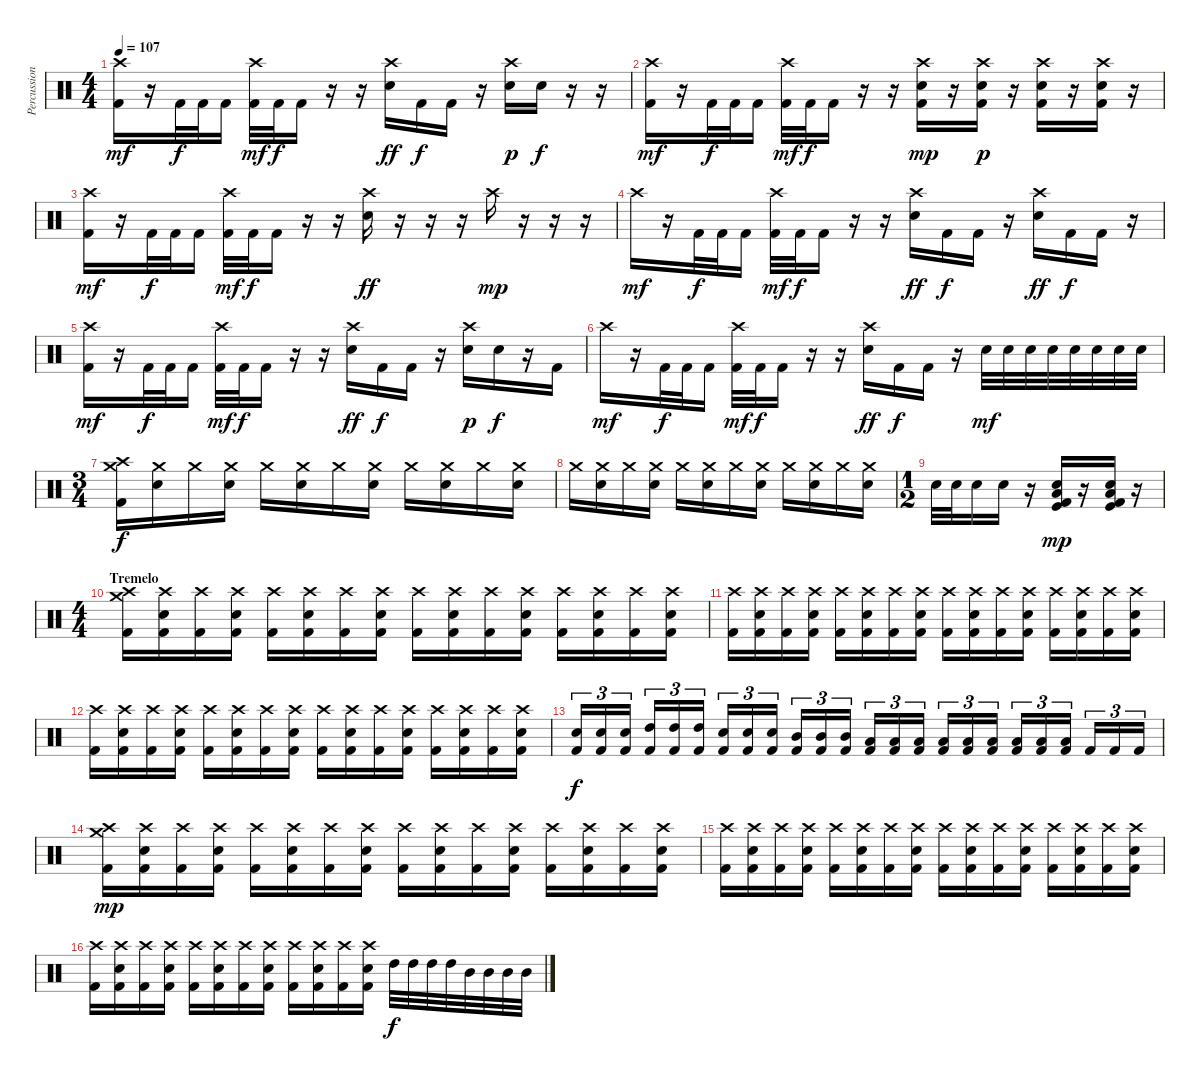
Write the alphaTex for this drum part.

\track ("Percussion" "Percussion") {instrument percussion}
\staff {score}
\articulation defaults
\ts (4 4)
\tempo 107
\clef neutral
\ks c
("Crash high (hit)" "Kick (hit) 2").16{dy mf} r.16 "Kick (hit) 2".32{dy f} "Kick (hit) 2".32 "Kick (hit) 2".16 ("Crash high (hit)" "Kick (hit) 2").32{dy mf} "Kick (hit) 2".32{dy f} "Kick (hit) 2".16 r.16 r.16 ("Crash high (hit)" "Electric Snare (hit)").16{dy ff} "Kick (hit) 2".16{dy f} "Kick (hit) 2".16 r.16 ("Crash high (hit)" "Electric Snare (hit)").16{dy p} "Electric Snare (hit)".16{dy f} r.16 r.16 |
("Crash high (hit)" "Kick (hit) 2").16{dy mf} r.16 "Kick (hit) 2".32{dy f} "Kick (hit) 2".32 "Kick (hit) 2".16 ("Crash high (hit)" "Kick (hit) 2").32{dy mf} "Kick (hit) 2".32{dy f} "Kick (hit) 2".16 r.16 r.16 ("Crash high (hit)" "Electric Snare (hit)" "Kick (hit) 2").16{dy mp} r.16 ("Crash high (hit)" "Electric Snare (hit)" "Kick (hit) 2").16{dy p} r.16 ("Crash high (hit)" "Electric Snare (hit)" "Kick (hit) 2").16 r.16 ("Crash high (hit)" "Electric Snare (hit)" "Kick (hit) 2").16 r.16 |
("Crash high (hit)" "Kick (hit) 2").16{dy mf} r.16 "Kick (hit) 2".32{dy f} "Kick (hit) 2".32 "Kick (hit) 2".16 ("Crash high (hit)" "Kick (hit) 2").32{dy mf} "Kick (hit) 2".32{dy f} "Kick (hit) 2".16 r.16 r.16 ("Crash high (hit)" "Electric Snare (hit)").16{dy ff} r.16 r.16 r.16 "Crash high (hit)".16{dy mp} r.16 r.16 r.16 |
"Crash high (hit)".16{dy mf} r.16 "Kick (hit) 2".32{dy f} "Kick (hit) 2".32 "Kick (hit) 2".16 ("Crash high (hit)" "Kick (hit) 2").32{dy mf} "Kick (hit) 2".32{dy f} "Kick (hit) 2".16 r.16 r.16 ("Crash high (hit)" "Electric Snare (hit)").16{dy ff} "Kick (hit) 2".16{dy f} "Kick (hit) 2".16 r.16 ("Crash high (hit)" "Electric Snare (hit)").16{dy ff} "Kick (hit) 2".16{dy f} "Kick (hit) 2".16 r.16 |
("Crash high (hit)" "Kick (hit) 2").16{dy mf} r.16 "Kick (hit) 2".32{dy f} "Kick (hit) 2".32 "Kick (hit) 2".16 ("Crash high (hit)" "Kick (hit) 2").32{dy mf} "Kick (hit) 2".32{dy f} "Kick (hit) 2".16 r.16 r.16 ("Crash high (hit)" "Electric Snare (hit)").16{dy ff} "Kick (hit) 2".16{dy f} "Kick (hit) 2".16 r.16 ("Crash high (hit)" "Electric Snare (hit)").16{dy p} "Electric Snare (hit)".16{dy f} r.16 "Kick (hit) 2".16 |
"Crash high (hit)".16{dy mf} r.16 "Kick (hit) 2".32{dy f} "Kick (hit) 2".32 "Kick (hit) 2".16 ("Crash high (hit)" "Kick (hit) 2").32{dy mf} "Kick (hit) 2".32{dy f} "Kick (hit) 2".16 r.16 r.16 ("Crash high (hit)" "Electric Snare (hit)").16{dy ff} "Kick (hit) 2".16{dy f} "Kick (hit) 2".16 r.16 "Electric Snare (hit)".32{dy mf} "Electric Snare (hit)".32 "Electric Snare (hit)".32 "Electric Snare (hit)".32 "Electric Snare (hit)".32 "Electric Snare (hit)".32 "Electric Snare (hit)".32 "Electric Snare (hit)".32 |
\ts (3 4)
("Crash medium (hit)" "Crash high (hit)" "Kick (hit) 2").16{dy f} ("Crash medium (hit)" "Electric Snare (hit)").16 "Crash medium (hit)".16 ("Crash medium (hit)" "Electric Snare (hit)").16 "Crash medium (hit)".16 ("Crash medium (hit)" "Electric Snare (hit)").16 "Crash medium (hit)".16 ("Crash medium (hit)" "Electric Snare (hit)").16 "Crash medium (hit)".16 ("Crash medium (hit)" "Electric Snare (hit)").16 "Crash medium (hit)".16 ("Crash medium (hit)" "Electric Snare (hit)").16 |
"Crash medium (hit)".16 ("Crash medium (hit)" "Electric Snare (hit)").16 "Crash medium (hit)".16 ("Crash medium (hit)" "Electric Snare (hit)").16 "Crash medium (hit)".16 ("Crash medium (hit)" "Electric Snare (hit)").16 "Crash medium (hit)".16 ("Crash medium (hit)" "Electric Snare (hit)").16 "Crash medium (hit)".16 ("Crash medium (hit)" "Electric Snare (hit)").16 "Crash medium (hit)".16 ("Crash medium (hit)" "Electric Snare (hit)").16 |
\ts (1 2)
"Electric Snare (hit)".32 "Electric Snare (hit)".32 "Electric Snare (hit)".16 "Electric Snare (hit)".16 r.16 ("Electric Snare (hit)" "Low Floor Tom (hit)" "Kick (hit)" "Kick (hit) 2").16{dy mp} r.16 ("Electric Snare (hit)" "Low Floor Tom (hit)" "Kick (hit)" "Kick (hit) 2").16 r.16 |
\ts (4 4)
\section ("" "Tremelo")
("Crash high (hit)" "Crash medium (hit)" "Kick (hit) 2").16 ("Crash high (hit)" "Electric Snare (hit)" "Kick (hit) 2").16 ("Crash high (hit)" "Kick (hit) 2").16 ("Crash high (hit)" "Electric Snare (hit)" "Kick (hit) 2").16 ("Crash high (hit)" "Kick (hit) 2").16 ("Crash high (hit)" "Electric Snare (hit)" "Kick (hit) 2").16 ("Crash high (hit)" "Kick (hit) 2").16 ("Crash high (hit)" "Electric Snare (hit)" "Kick (hit) 2").16 ("Crash high (hit)" "Kick (hit) 2").16 ("Crash high (hit)" "Electric Snare (hit)" "Kick (hit) 2").16 ("Crash high (hit)" "Kick (hit) 2").16 ("Crash high (hit)" "Electric Snare (hit)" "Kick (hit) 2").16 ("Crash high (hit)" "Kick (hit) 2").16 ("Crash high (hit)" "Electric Snare (hit)" "Kick (hit) 2").16 ("Crash high (hit)" "Kick (hit) 2").16 ("Crash high (hit)" "Electric Snare (hit)" "Kick (hit) 2").16 |
("Crash high (hit)" "Kick (hit) 2").16 ("Crash high (hit)" "Electric Snare (hit)" "Kick (hit) 2").16 ("Crash high (hit)" "Kick (hit) 2").16 ("Crash high (hit)" "Electric Snare (hit)" "Kick (hit) 2").16 ("Crash high (hit)" "Kick (hit) 2").16 ("Crash high (hit)" "Electric Snare (hit)" "Kick (hit) 2").16 ("Crash high (hit)" "Kick (hit) 2").16 ("Crash high (hit)" "Electric Snare (hit)" "Kick (hit) 2").16 ("Crash high (hit)" "Kick (hit) 2").16 ("Crash high (hit)" "Electric Snare (hit)" "Kick (hit) 2").16 ("Crash high (hit)" "Kick (hit) 2").16 ("Crash high (hit)" "Electric Snare (hit)" "Kick (hit) 2").16 ("Crash high (hit)" "Kick (hit) 2").16 ("Crash high (hit)" "Electric Snare (hit)" "Kick (hit) 2").16 ("Crash high (hit)" "Kick (hit) 2").16 ("Crash high (hit)" "Electric Snare (hit)" "Kick (hit) 2").16 |
("Crash high (hit)" "Kick (hit) 2").16 ("Crash high (hit)" "Electric Snare (hit)" "Kick (hit) 2").16 ("Crash high (hit)" "Kick (hit) 2").16 ("Crash high (hit)" "Electric Snare (hit)" "Kick (hit) 2").16 ("Crash high (hit)" "Kick (hit) 2").16 ("Crash high (hit)" "Electric Snare (hit)" "Kick (hit) 2").16 ("Crash high (hit)" "Kick (hit) 2").16 ("Crash high (hit)" "Electric Snare (hit)" "Kick (hit) 2").16 ("Crash high (hit)" "Kick (hit) 2").16 ("Crash high (hit)" "Electric Snare (hit)" "Kick (hit) 2").16 ("Crash high (hit)" "Kick (hit) 2").16 ("Crash high (hit)" "Electric Snare (hit)" "Kick (hit) 2").16 ("Crash high (hit)" "Kick (hit) 2").16 ("Crash high (hit)" "Electric Snare (hit)" "Kick (hit) 2").16 ("Crash high (hit)" "Kick (hit) 2").16 ("Crash high (hit)" "Electric Snare (hit)" "Kick (hit) 2").16 |
("Electric Snare (hit)" "Kick (hit) 2").16{tu (3 2) dy f} ("Electric Snare (hit)" "Kick (hit) 2").16{tu (3 2)} ("Electric Snare (hit)" "Kick (hit) 2").16{tu (3 2)} ("High Tom (hit)" "Kick (hit) 2").16{tu (3 2)} ("High Tom (hit)" "Kick (hit) 2").16{tu (3 2)} ("High Tom (hit)" "Kick (hit) 2").16{tu (3 2)} ("Electric Snare (hit)" "Kick (hit) 2").16{tu (3 2)} ("Electric Snare (hit)" "Kick (hit) 2").16{tu (3 2)} ("Electric Snare (hit)" "Kick (hit) 2").16{tu (3 2)} ("Mid Tom (hit)" "Kick (hit) 2").16{tu (3 2)} ("Mid Tom (hit)" "Kick (hit) 2").16{tu (3 2)} ("Mid Tom (hit)" "Kick (hit) 2").16{tu (3 2)} ("Low Tom (hit)" "Kick (hit) 2").16{tu (3 2)} ("Low Tom (hit)" "Kick (hit) 2").16{tu (3 2)} ("Low Tom (hit)" "Kick (hit) 2").16{tu (3 2)} ("Low Tom (hit)" "Kick (hit) 2").16{tu (3 2)} ("Low Tom (hit)" "Kick (hit) 2").16{tu (3 2)} ("Low Tom (hit)" "Kick (hit) 2").16{tu (3 2)} ("Low Floor Tom (hit)" "Kick (hit) 2").16{tu (3 2)} ("Low Floor Tom (hit)" "Kick (hit) 2").16{tu (3 2)} ("Low Floor Tom (hit)" "Kick (hit) 2").16{tu (3 2)} "Kick (hit) 2".16{tu (3 2)} "Kick (hit) 2".16{tu (3 2)} "Kick (hit) 2".16{tu (3 2)} |
("Crash high (hit)" "Crash medium (hit)" "Kick (hit) 2").16{dy mp} ("Crash high (hit)" "Electric Snare (hit)" "Kick (hit) 2").16 ("Crash high (hit)" "Kick (hit) 2").16 ("Crash high (hit)" "Electric Snare (hit)" "Kick (hit) 2").16 ("Crash high (hit)" "Kick (hit) 2").16 ("Crash high (hit)" "Electric Snare (hit)" "Kick (hit) 2").16 ("Crash high (hit)" "Kick (hit) 2").16 ("Crash high (hit)" "Electric Snare (hit)" "Kick (hit) 2").16 ("Crash high (hit)" "Kick (hit) 2").16 ("Crash high (hit)" "Electric Snare (hit)" "Kick (hit) 2").16 ("Crash high (hit)" "Kick (hit) 2").16 ("Crash high (hit)" "Electric Snare (hit)" "Kick (hit) 2").16 ("Crash high (hit)" "Kick (hit) 2").16 ("Crash high (hit)" "Electric Snare (hit)" "Kick (hit) 2").16 ("Crash high (hit)" "Kick (hit) 2").16 ("Crash high (hit)" "Electric Snare (hit)" "Kick (hit) 2").16 |
("Crash high (hit)" "Kick (hit) 2").16 ("Crash high (hit)" "Electric Snare (hit)" "Kick (hit) 2").16 ("Crash high (hit)" "Kick (hit) 2").16 ("Crash high (hit)" "Electric Snare (hit)" "Kick (hit) 2").16 ("Crash high (hit)" "Kick (hit) 2").16 ("Crash high (hit)" "Electric Snare (hit)" "Kick (hit) 2").16 ("Crash high (hit)" "Kick (hit) 2").16 ("Crash high (hit)" "Electric Snare (hit)" "Kick (hit) 2").16 ("Crash high (hit)" "Kick (hit) 2").16 ("Crash high (hit)" "Electric Snare (hit)" "Kick (hit) 2").16 ("Crash high (hit)" "Kick (hit) 2").16 ("Crash high (hit)" "Electric Snare (hit)" "Kick (hit) 2").16 ("Crash high (hit)" "Kick (hit) 2").16 ("Crash high (hit)" "Electric Snare (hit)" "Kick (hit) 2").16 ("Crash high (hit)" "Kick (hit) 2").16 ("Crash high (hit)" "Electric Snare (hit)" "Kick (hit) 2").16 |
("Crash high (hit)" "Kick (hit) 2").16 ("Crash high (hit)" "Electric Snare (hit)" "Kick (hit) 2").16 ("Crash high (hit)" "Kick (hit) 2").16 ("Crash high (hit)" "Electric Snare (hit)" "Kick (hit) 2").16 ("Crash high (hit)" "Kick (hit) 2").16 ("Crash high (hit)" "Electric Snare (hit)" "Kick (hit) 2").16 ("Crash high (hit)" "Kick (hit) 2").16 ("Crash high (hit)" "Electric Snare (hit)" "Kick (hit) 2").16 ("Crash high (hit)" "Kick (hit) 2").16 ("Crash high (hit)" "Electric Snare (hit)" "Kick (hit) 2").16 ("Crash high (hit)" "Kick (hit) 2").16 ("Crash high (hit)" "Electric Snare (hit)" "Kick (hit) 2").16 "High Tom (hit)".32{dy f} "High Tom (hit)".32 "High Tom (hit)".32 "High Tom (hit)".32 "Mid Tom (hit)".32 "Mid Tom (hit)".32 "Mid Tom (hit)".32 "Mid Tom (hit)".32
